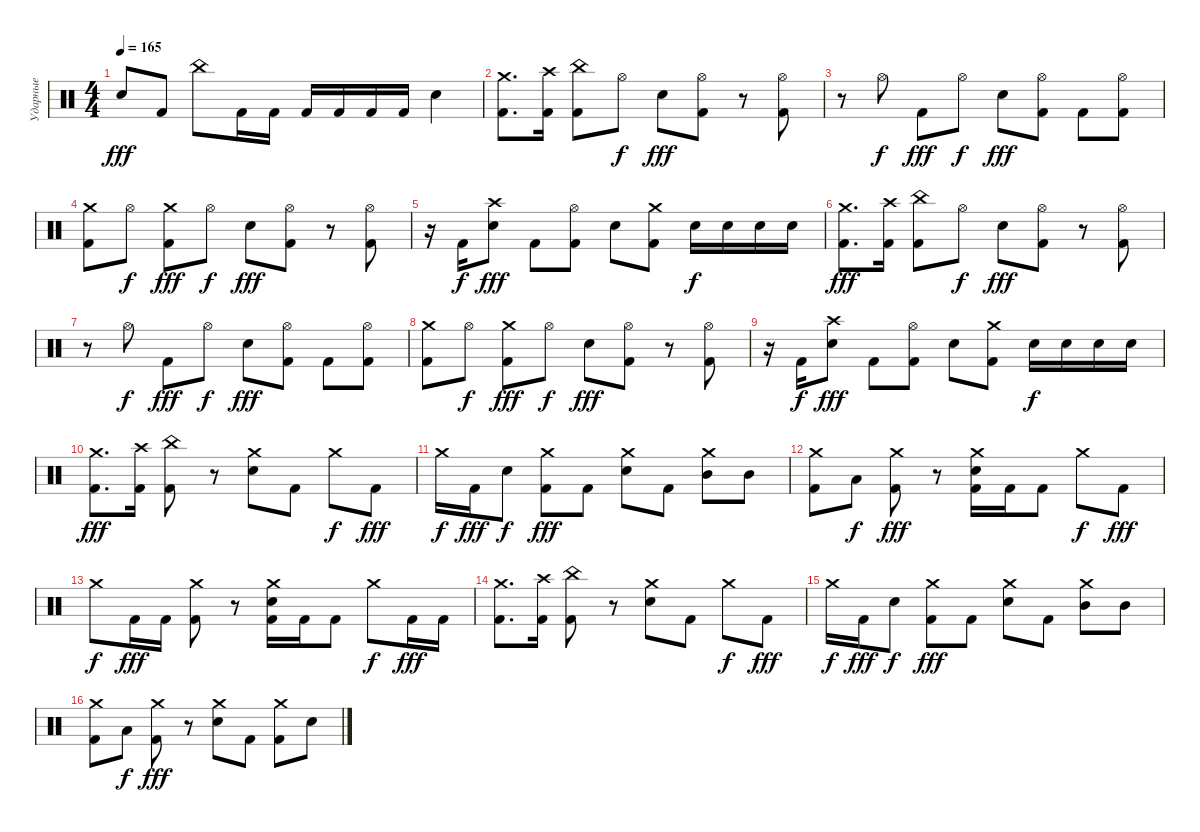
\track ("Ударные" "Ударные") {instrument percussion}
\staff {score}
\articulation defaults
\ts (4 4)
\tempo 165
\clef neutral
\ks c "Electric Snare (hit)".8{dy fff} "Kick (hit) 2".8 "China (hit)".8 "Kick (hit) 2".16 "Kick (hit) 2".16 "Kick (hit) 2".16 "Kick (hit) 2".16 "Kick (hit) 2".16 "Kick (hit) 2".16 "Electric Snare (hit)".4
|
("Crash medium (hit)" "Kick (hit) 2").8{d} ("Crash high (hit)" "Kick (hit) 2").16 ("China (hit)" "Kick (hit) 2").8 "Hi-Hat (open)".8{dy f} "Electric Snare (hit)".8{dy fff} ("Hi-Hat (open)" "Kick (hit) 2").8 r.8 ("Hi-Hat (open)" "Kick (hit) 2").8 |
r.8 "Hi-Hat (open)".8{dy f} "Kick (hit) 2".8{dy fff} "Hi-Hat (open)".8{dy f} "Electric Snare (hit)".8{dy fff} ("Hi-Hat (open)" "Kick (hit) 2").8 "Kick (hit) 2".8 ("Hi-Hat (open)" "Kick (hit) 2").8 |
("Crash medium (hit)" "Kick (hit) 2").8 "Hi-Hat (open)".8{dy f} ("Crash medium (hit)" "Kick (hit) 2").8{dy fff} "Hi-Hat (open)".8{dy f} "Electric Snare (hit)".8{dy fff} ("Hi-Hat (open)" "Kick (hit) 2").8 r.8 ("Hi-Hat (open)" "Kick (hit) 2").8 |
r.16 "Kick (hit) 2".16{dy f} ("Crash high (hit)" "Electric Snare (hit)").8{dy fff} "Kick (hit) 2".8 ("Hi-Hat (open)" "Kick (hit) 2").8 "Electric Snare (hit)".8 ("Crash medium (hit)" "Kick (hit) 2").8 "Electric Snare (hit)".16{dy f} "Electric Snare (hit)".16 "Electric Snare (hit)".16 "Electric Snare (hit)".16 |
("Crash medium (hit)" "Kick (hit) 2").8{d dy fff} ("Crash high (hit)" "Kick (hit) 2").16 ("China (hit)" "Kick (hit) 2").8 "Hi-Hat (open)".8{dy f} "Electric Snare (hit)".8{dy fff} ("Hi-Hat (open)" "Kick (hit) 2").8 r.8 ("Hi-Hat (open)" "Kick (hit) 2").8 |
r.8 "Hi-Hat (open)".8{dy f} "Kick (hit) 2".8{dy fff} "Hi-Hat (open)".8{dy f} "Electric Snare (hit)".8{dy fff} ("Hi-Hat (open)" "Kick (hit) 2").8 "Kick (hit) 2".8 ("Hi-Hat (open)" "Kick (hit) 2").8 |
("Crash medium (hit)" "Kick (hit) 2").8 "Hi-Hat (open)".8{dy f} ("Crash medium (hit)" "Kick (hit) 2").8{dy fff} "Hi-Hat (open)".8{dy f} "Electric Snare (hit)".8{dy fff} ("Hi-Hat (open)" "Kick (hit) 2").8 r.8 ("Hi-Hat (open)" "Kick (hit) 2").8 |
r.16 "Kick (hit) 2".16{dy f} ("Crash high (hit)" "Electric Snare (hit)").8{dy fff} "Kick (hit) 2".8 ("Hi-Hat (open)" "Kick (hit) 2").8 "Electric Snare (hit)".8 ("Crash medium (hit)" "Kick (hit) 2").8 "Electric Snare (hit)".16{dy f} "Electric Snare (hit)".16 "Electric Snare (hit)".16 "Electric Snare (hit)".16 |
("Crash medium (hit)" "Kick (hit) 2").8{d dy fff} ("Crash high (hit)" "Kick (hit) 2").16 ("China (hit)" "Kick (hit) 2").8 r.8 ("Crash medium (hit)" "Electric Snare (hit)").8 "Kick (hit) 2".8 "Crash medium (hit)".8{dy f} "Kick (hit) 2".8{dy fff} |
"Crash medium (hit)".16{dy f} "Kick (hit) 2".16{dy fff} "Electric Snare (hit)".8{dy f} ("Crash medium (hit)" "Kick (hit) 2").8{dy fff} "Kick (hit) 2".8 ("Crash medium (hit)" "Electric Snare (hit)").8 "Kick (hit) 2".8 ("Crash medium (hit)" "Mid Tom (hit)").8 "Mid Tom (hit)".8 |
("Crash medium (hit)" "Kick (hit) 2").8 "Low Tom (hit)".8{dy f} ("Crash medium (hit)" "Kick (hit) 2").8{dy fff} r.8 ("Crash medium (hit)" "Electric Snare (hit)" "Kick (hit) 2").16 "Kick (hit) 2".16 "Kick (hit) 2".8 "Crash medium (hit)".8{dy f} "Kick (hit) 2".8{dy fff} |
"Crash medium (hit)".8{dy f} "Kick (hit) 2".16{dy fff} "Kick (hit) 2".16 ("Crash medium (hit)" "Kick (hit) 2").8 r.8 ("Crash medium (hit)" "Electric Snare (hit)" "Kick (hit) 2").16 "Kick (hit) 2".16 "Kick (hit) 2".8 "Crash medium (hit)".8{dy f} "Kick (hit) 2".16{dy fff} "Kick (hit) 2".16 |
("Crash medium (hit)" "Kick (hit) 2").8{d} ("Crash high (hit)" "Kick (hit) 2").16 ("China (hit)" "Kick (hit) 2").8 r.8 ("Crash medium (hit)" "Electric Snare (hit)").8 "Kick (hit) 2".8 "Crash medium (hit)".8{dy f} "Kick (hit) 2".8{dy fff} |
"Crash medium (hit)".16{dy f} "Kick (hit) 2".16{dy fff} "Electric Snare (hit)".8{dy f} ("Crash medium (hit)" "Kick (hit) 2").8{dy fff} "Kick (hit) 2".8 ("Crash medium (hit)" "Electric Snare (hit)").8 "Kick (hit) 2".8 ("Crash medium (hit)" "Mid Tom (hit)").8 "Mid Tom (hit)".8 |
("Crash medium (hit)" "Kick (hit) 2").8 "Low Tom (hit)".8{dy f} ("Crash medium (hit)" "Kick (hit) 2").8{dy fff} r.8 ("Crash medium (hit)" "Electric Snare (hit)").8 "Kick (hit) 2".8 ("Crash medium (hit)" "Kick (hit) 2").8 "Electric Snare (hit)".8
